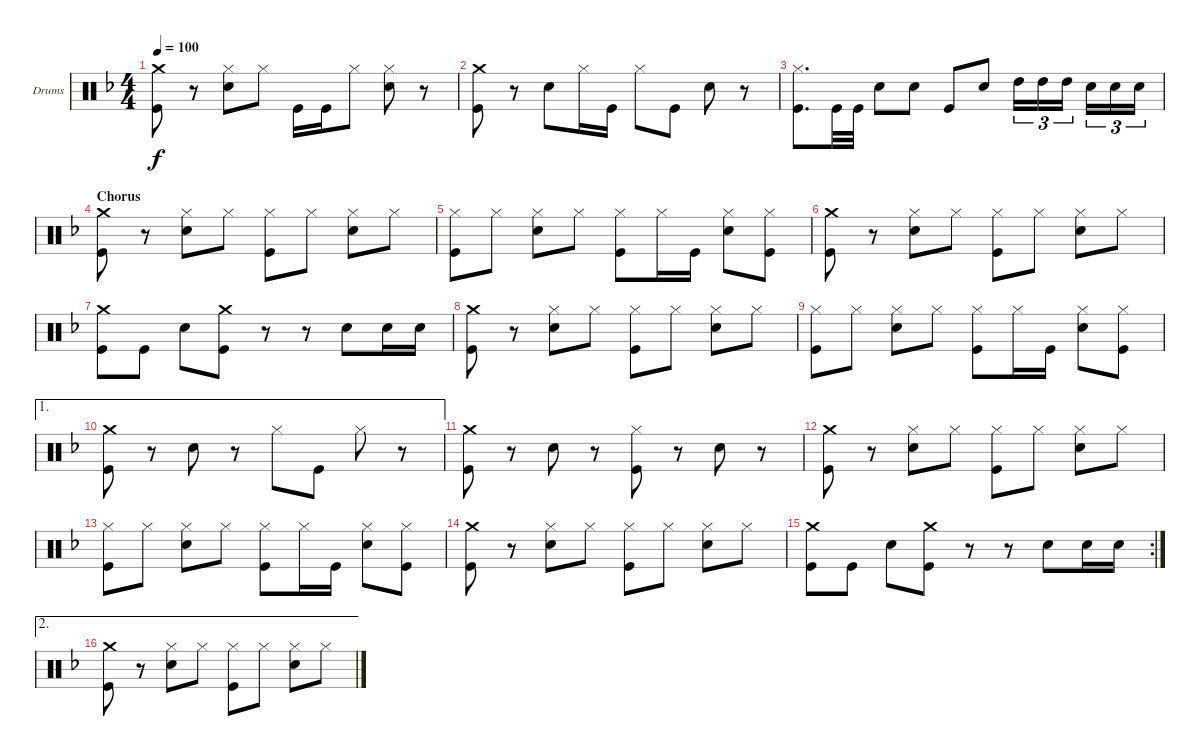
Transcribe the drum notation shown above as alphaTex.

\bracketExtendMode groupsimilarinstruments
\firstSystemTrackNameOrientation horizontal
\otherSystemsTrackNameOrientation horizontal
\track ("Drums" "Drums") {instrument percussion}
\staff {score}
\articulation defaults
\ts (4 4)
\tempo 100
\clef neutral
\ks dminor
("Crash medium (hit)" "Kick (hit)").8{dy f} r.8 ("Hi-Hat (closed)" "Snare (hit) 2").8 "Hi-Hat (closed)".8 "Kick (hit)".16 "Kick (hit)".16 "Hi-Hat (closed)".8 ("Hi-Hat (closed)" "Snare (hit) 2").8 r.8 |
("Crash medium (hit)" "Kick (hit)").8 r.8 "Snare (hit) 2".8 "Hi-Hat (closed)".16 "Kick (hit)".16 "Hi-Hat (closed)".8 "Kick (hit)".8 "Snare (hit) 2".8 r.8 |
("Hi-Hat (closed)" "Kick (hit)").8{d} "Kick (hit)".32 "Kick (hit)".32 "Snare (hit) 2".8 "Snare (hit) 2".8 "Kick (hit)".8 "Snare (hit) 2".8 "High Tom (hit)".16{tu (3 2)} "High Tom (hit)".16{tu (3 2)} "High Tom (hit)".16{tu (3 2)} "Snare (hit) 2".16{tu (3 2)} "Snare (hit) 2".16{tu (3 2)} "Snare (hit) 2".16{tu (3 2)} |
\section ("" "Chorus")
("Crash medium (hit)" "Kick (hit)").8 r.8 ("Hi-Hat (closed)" "Snare (hit) 2").8 "Hi-Hat (closed)".8 ("Hi-Hat (closed)" "Kick (hit)").8 "Hi-Hat (closed)".8 ("Hi-Hat (closed)" "Snare (hit) 2").8 "Hi-Hat (closed)".8 |
("Hi-Hat (closed)" "Kick (hit)").8 "Hi-Hat (closed)".8 ("Hi-Hat (closed)" "Snare (hit) 2").8 "Hi-Hat (closed)".8 ("Hi-Hat (closed)" "Kick (hit)").8 "Hi-Hat (closed)".16 "Kick (hit)".16 ("Hi-Hat (closed)" "Snare (hit) 2").8 ("Hi-Hat (closed)" "Kick (hit)").8 |
("Crash medium (hit)" "Kick (hit)").8 r.8 ("Hi-Hat (closed)" "Snare (hit) 2").8 "Hi-Hat (closed)".8 ("Hi-Hat (closed)" "Kick (hit)").8 "Hi-Hat (closed)".8 ("Hi-Hat (closed)" "Snare (hit) 2").8 "Hi-Hat (closed)".8 |
("Crash medium (hit)" "Kick (hit)").8 "Kick (hit)".8 "Snare (hit) 2".8 ("Crash medium (hit)" "Kick (hit)").8 r.8 r.8 "Snare (hit) 2".8 "Snare (hit) 2".16 "Snare (hit) 2".16 |
("Crash medium (hit)" "Kick (hit)").8 r.8 ("Hi-Hat (closed)" "Snare (hit) 2").8 "Hi-Hat (closed)".8 ("Hi-Hat (closed)" "Kick (hit)").8 "Hi-Hat (closed)".8 ("Hi-Hat (closed)" "Snare (hit) 2").8 "Hi-Hat (closed)".8 |
("Hi-Hat (closed)" "Kick (hit)").8 "Hi-Hat (closed)".8 ("Hi-Hat (closed)" "Snare (hit) 2").8 "Hi-Hat (closed)".8 ("Hi-Hat (closed)" "Kick (hit)").8 "Hi-Hat (closed)".16 "Kick (hit)".16 ("Hi-Hat (closed)" "Snare (hit) 2").8 ("Hi-Hat (closed)" "Kick (hit)").8 |
\ae 1
("Crash medium (hit)" "Kick (hit)").8 r.8 "Snare (hit) 2".8 r.8 "Hi-Hat (closed)".8 "Kick (hit)".8 "Hi-Hat (closed)".8 r.8 |
("Crash medium (hit)" "Kick (hit)").8 r.8 "Snare (hit) 2".8 r.8 ("Hi-Hat (closed)" "Kick (hit)").8 r.8 "Snare (hit) 2".8 r.8 |
("Crash medium (hit)" "Kick (hit)").8 r.8 ("Hi-Hat (closed)" "Snare (hit) 2").8 "Hi-Hat (closed)".8 ("Hi-Hat (closed)" "Kick (hit)").8 "Hi-Hat (closed)".8 ("Hi-Hat (closed)" "Snare (hit) 2").8 "Hi-Hat (closed)".8 |
("Hi-Hat (closed)" "Kick (hit)").8 "Hi-Hat (closed)".8 ("Hi-Hat (closed)" "Snare (hit) 2").8 "Hi-Hat (closed)".8 ("Hi-Hat (closed)" "Kick (hit)").8 "Hi-Hat (closed)".16 "Kick (hit)".16 ("Hi-Hat (closed)" "Snare (hit) 2").8 ("Hi-Hat (closed)" "Kick (hit)").8 |
("Crash medium (hit)" "Kick (hit)").8 r.8 ("Hi-Hat (closed)" "Snare (hit) 2").8 "Hi-Hat (closed)".8 ("Hi-Hat (closed)" "Kick (hit)").8 "Hi-Hat (closed)".8 ("Hi-Hat (closed)" "Snare (hit) 2").8 "Hi-Hat (closed)".8 |
\rc 2
("Crash medium (hit)" "Kick (hit)").8 "Kick (hit)".8 "Snare (hit) 2".8 ("Crash medium (hit)" "Kick (hit)").8 r.8 r.8 "Snare (hit) 2".8 "Snare (hit) 2".16 "Snare (hit) 2".16 |
\ae 2
("Crash medium (hit)" "Kick (hit)").8 r.8 ("Hi-Hat (closed)" "Snare (hit) 2").8 "Hi-Hat (closed)".8 ("Hi-Hat (closed)" "Kick (hit)").8 "Hi-Hat (closed)".8 ("Hi-Hat (closed)" "Snare (hit) 2").8 "Hi-Hat (closed)".8
